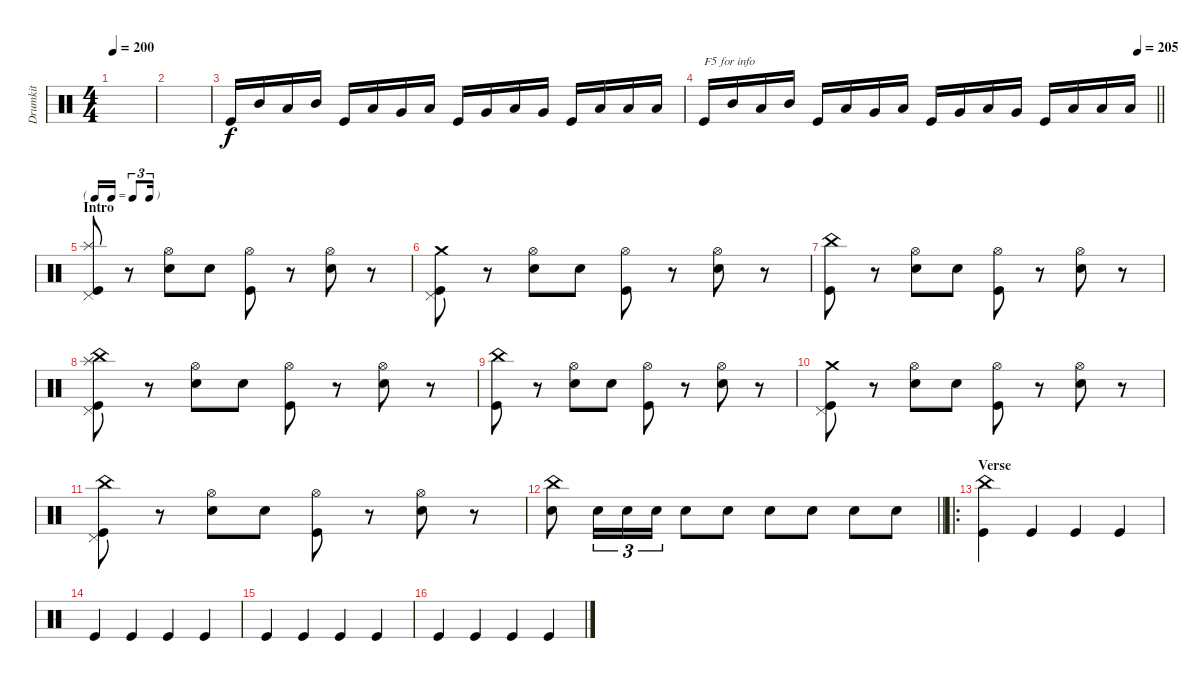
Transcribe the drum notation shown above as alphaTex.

\track ("Drumkit" "Drumkit") {instrument percussion}
\staff {score}
\articulation defaults
\ts (4 4)
\tempo 200
\clef neutral
\ks c
|
|
"Kick (hit)".16 "Mid Tom (hit)".16 "Low Tom (hit)".16 "Mid Tom (hit)".16 "Kick (hit)".16 "Low Tom (hit)".16 "Very Low Tom (hit)".16 "Low Tom (hit)".16 "Kick (hit)".16 "Very Low Tom (hit)".16 "Low Floor Tom (hit)".16 "Very Low Tom (hit)".16 "Kick (hit)".16 "Low Floor Tom (hit)".16 "Low Floor Tom (hit)".16 "Low Floor Tom (hit)".16 |
\tempo (205 0.9583333333333334)
\barLineRight lightlight "Kick (hit)".16{txt "F5 for info"} "Mid Tom (hit)".16 "Low Tom (hit)".16 "Mid Tom (hit)".16 "Kick (hit)".16 "Low Tom (hit)".16 "Very Low Tom (hit)".16 "Low Tom (hit)".16 "Kick (hit)".16 "Very Low Tom (hit)".16 "Low Floor Tom (hit)".16 "Very Low Tom (hit)".16 "Kick (hit)".16 "Low Floor Tom (hit)".16 "Low Floor Tom (hit)".16 "Low Floor Tom (hit)".16
|
\tf triplet16th
\section ("" "Intro")
("Splash (hit)" "Pedal Hi-Hat (hit)" "Kick (hit)").8 r.8 ("Snare (hit) 2" "Hi-Hat (open)").8 "Snare (hit) 2".8 ("Hi-Hat (open)" "Kick (hit)").8 r.8 ("Hi-Hat (open)" "Snare (hit) 2").8 r.8 |
("Pedal Hi-Hat (hit)" "Kick (hit)" "Crash medium (hit)").8 r.8 ("Snare (hit) 2" "Hi-Hat (open)").8 "Snare (hit) 2".8 ("Hi-Hat (open)" "Kick (hit)").8 r.8 ("Hi-Hat (open)" "Snare (hit) 2").8 r.8 |
("Kick (hit)" "China (hit)").8 r.8 ("Snare (hit) 2" "Hi-Hat (open)").8 "Snare (hit) 2".8 ("Hi-Hat (open)" "Kick (hit)").8 r.8 ("Hi-Hat (open)" "Snare (hit) 2").8 r.8 |
("Splash (hit)" "Pedal Hi-Hat (hit)" "Kick (hit)" "China (hit)").8 r.8 ("Snare (hit) 2" "Hi-Hat (open)").8 "Snare (hit) 2".8 ("Hi-Hat (open)" "Kick (hit)").8 r.8 ("Hi-Hat (open)" "Snare (hit) 2").8 r.8 |
("Kick (hit)" "China (hit)").8 r.8 ("Snare (hit) 2" "Hi-Hat (open)").8 "Snare (hit) 2".8 ("Hi-Hat (open)" "Kick (hit)").8 r.8 ("Hi-Hat (open)" "Snare (hit) 2").8 r.8 |
("Pedal Hi-Hat (hit)" "Kick (hit)" "Crash medium (hit)").8 r.8 ("Snare (hit) 2" "Hi-Hat (open)").8 "Snare (hit) 2".8 ("Hi-Hat (open)" "Kick (hit)").8 r.8 ("Hi-Hat (open)" "Snare (hit) 2").8 r.8 |
("Pedal Hi-Hat (hit)" "Kick (hit)" "China (hit)").8 r.8 ("Snare (hit) 2" "Hi-Hat (open)").8 "Snare (hit) 2".8 ("Hi-Hat (open)" "Kick (hit)").8 r.8 ("Hi-Hat (open)" "Snare (hit) 2").8 r.8 |
\barLineRight lightlight
("Snare (hit) 2" "China (hit)").8 "Snare (hit) 2".16{tu (3 2)} "Snare (hit) 2".16{tu (3 2)} "Snare (hit) 2".16{tu (3 2)} "Snare (hit) 2".8 "Snare (hit) 2".8 "Snare (hit) 2".8 "Snare (hit) 2".8 "Snare (hit) 2".8 "Snare (hit) 2".8 |
\ro
\section ("" "Verse")
("Kick (hit)" "China (hit)").4 "Kick (hit)".4 "Kick (hit)".4 "Kick (hit)".4 |
"Kick (hit)".4 "Kick (hit)".4 "Kick (hit)".4 "Kick (hit)".4 |
"Kick (hit)".4 "Kick (hit)".4 "Kick (hit)".4 "Kick (hit)".4 |
"Kick (hit)".4 "Kick (hit)".4 "Kick (hit)".4 "Kick (hit)".4
